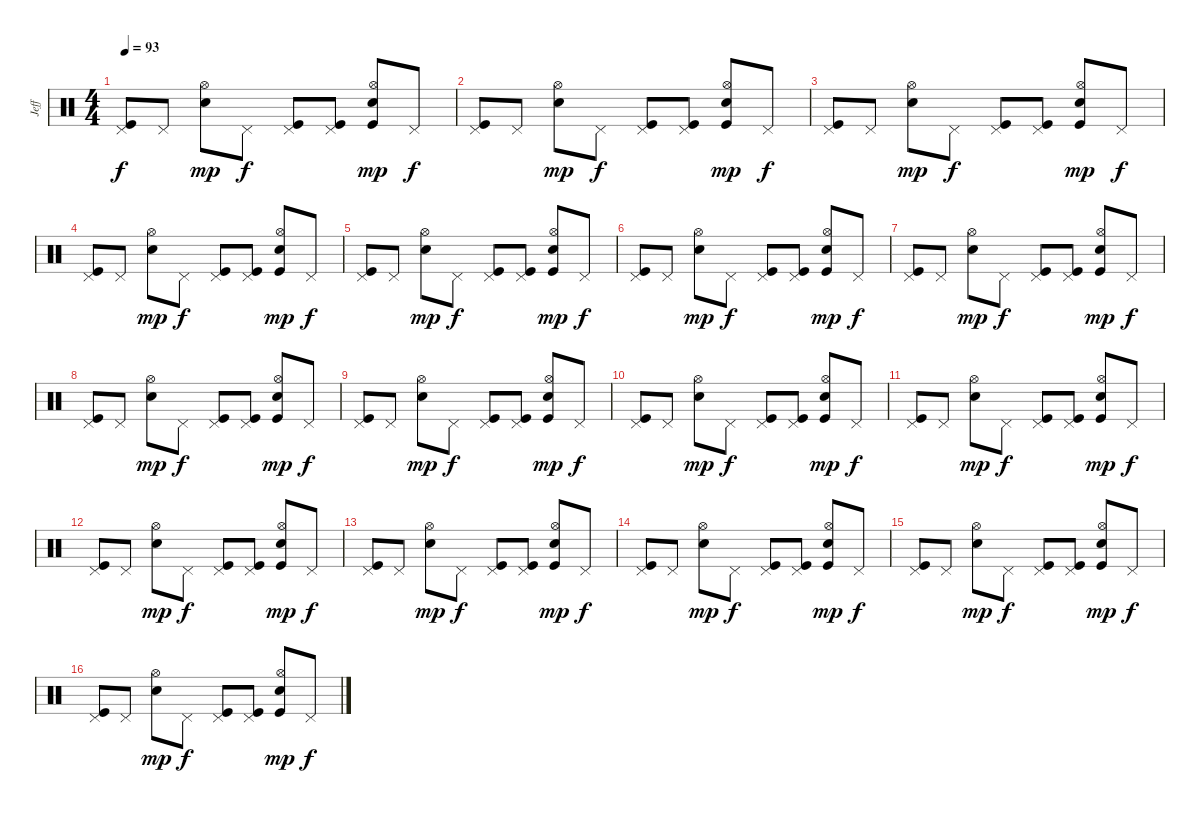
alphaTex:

\track ("Jeff" "Jeff") {instrument percussion}
\staff {score}
\articulation defaults
\ts (4 4)
\tempo 93
\clef neutral
\ks c
("Pedal Hi-Hat (hit)" "Kick (hit)").8{dy f} "Pedal Hi-Hat (hit)".8 ("Hi-Hat (open)" "Snare (hit) 2").8{dy mp} "Pedal Hi-Hat (hit)".8{dy f} ("Pedal Hi-Hat (hit)" "Kick (hit)").8 ("Pedal Hi-Hat (hit)" "Kick (hit)").8 ("Hi-Hat (open)" "Snare (hit) 2" "Kick (hit)").8{dy mp} "Pedal Hi-Hat (hit)".8{dy f} |
("Pedal Hi-Hat (hit)" "Kick (hit)").8 "Pedal Hi-Hat (hit)".8 ("Hi-Hat (open)" "Snare (hit) 2").8{dy mp} "Pedal Hi-Hat (hit)".8{dy f} ("Pedal Hi-Hat (hit)" "Kick (hit)").8 ("Pedal Hi-Hat (hit)" "Kick (hit)").8 ("Hi-Hat (open)" "Snare (hit) 2" "Kick (hit)").8{dy mp} "Pedal Hi-Hat (hit)".8{dy f} |
("Pedal Hi-Hat (hit)" "Kick (hit)").8 "Pedal Hi-Hat (hit)".8 ("Hi-Hat (open)" "Snare (hit) 2").8{dy mp} "Pedal Hi-Hat (hit)".8{dy f} ("Pedal Hi-Hat (hit)" "Kick (hit)").8 ("Pedal Hi-Hat (hit)" "Kick (hit)").8 ("Hi-Hat (open)" "Snare (hit) 2" "Kick (hit)").8{dy mp} "Pedal Hi-Hat (hit)".8{dy f} |
("Pedal Hi-Hat (hit)" "Kick (hit)").8 "Pedal Hi-Hat (hit)".8 ("Hi-Hat (open)" "Snare (hit) 2").8{dy mp} "Pedal Hi-Hat (hit)".8{dy f} ("Pedal Hi-Hat (hit)" "Kick (hit)").8 ("Pedal Hi-Hat (hit)" "Kick (hit)").8 ("Hi-Hat (open)" "Snare (hit) 2" "Kick (hit)").8{dy mp} "Pedal Hi-Hat (hit)".8{dy f} |
("Pedal Hi-Hat (hit)" "Kick (hit)").8 "Pedal Hi-Hat (hit)".8 ("Hi-Hat (open)" "Snare (hit) 2").8{dy mp} "Pedal Hi-Hat (hit)".8{dy f} ("Pedal Hi-Hat (hit)" "Kick (hit)").8 ("Pedal Hi-Hat (hit)" "Kick (hit)").8 ("Hi-Hat (open)" "Snare (hit) 2" "Kick (hit)").8{dy mp} "Pedal Hi-Hat (hit)".8{dy f} |
("Pedal Hi-Hat (hit)" "Kick (hit)").8 "Pedal Hi-Hat (hit)".8 ("Hi-Hat (open)" "Snare (hit) 2").8{dy mp} "Pedal Hi-Hat (hit)".8{dy f} ("Pedal Hi-Hat (hit)" "Kick (hit)").8 ("Pedal Hi-Hat (hit)" "Kick (hit)").8 ("Hi-Hat (open)" "Snare (hit) 2" "Kick (hit)").8{dy mp} "Pedal Hi-Hat (hit)".8{dy f} |
("Pedal Hi-Hat (hit)" "Kick (hit)").8 "Pedal Hi-Hat (hit)".8 ("Hi-Hat (open)" "Snare (hit) 2").8{dy mp} "Pedal Hi-Hat (hit)".8{dy f} ("Pedal Hi-Hat (hit)" "Kick (hit)").8 ("Pedal Hi-Hat (hit)" "Kick (hit)").8 ("Hi-Hat (open)" "Snare (hit) 2" "Kick (hit)").8{dy mp} "Pedal Hi-Hat (hit)".8{dy f} |
("Pedal Hi-Hat (hit)" "Kick (hit)").8 "Pedal Hi-Hat (hit)".8 ("Hi-Hat (open)" "Snare (hit) 2").8{dy mp} "Pedal Hi-Hat (hit)".8{dy f} ("Pedal Hi-Hat (hit)" "Kick (hit)").8 ("Pedal Hi-Hat (hit)" "Kick (hit)").8 ("Hi-Hat (open)" "Snare (hit) 2" "Kick (hit)").8{dy mp} "Pedal Hi-Hat (hit)".8{dy f} |
("Pedal Hi-Hat (hit)" "Kick (hit)").8 "Pedal Hi-Hat (hit)".8 ("Hi-Hat (open)" "Snare (hit) 2").8{dy mp} "Pedal Hi-Hat (hit)".8{dy f} ("Pedal Hi-Hat (hit)" "Kick (hit)").8 ("Pedal Hi-Hat (hit)" "Kick (hit)").8 ("Hi-Hat (open)" "Snare (hit) 2" "Kick (hit)").8{dy mp} "Pedal Hi-Hat (hit)".8{dy f} |
("Pedal Hi-Hat (hit)" "Kick (hit)").8 "Pedal Hi-Hat (hit)".8 ("Hi-Hat (open)" "Snare (hit) 2").8{dy mp} "Pedal Hi-Hat (hit)".8{dy f} ("Pedal Hi-Hat (hit)" "Kick (hit)").8 ("Pedal Hi-Hat (hit)" "Kick (hit)").8 ("Hi-Hat (open)" "Snare (hit) 2" "Kick (hit)").8{dy mp} "Pedal Hi-Hat (hit)".8{dy f} |
("Pedal Hi-Hat (hit)" "Kick (hit)").8 "Pedal Hi-Hat (hit)".8 ("Hi-Hat (open)" "Snare (hit) 2").8{dy mp} "Pedal Hi-Hat (hit)".8{dy f} ("Pedal Hi-Hat (hit)" "Kick (hit)").8 ("Pedal Hi-Hat (hit)" "Kick (hit)").8 ("Hi-Hat (open)" "Snare (hit) 2" "Kick (hit)").8{dy mp} "Pedal Hi-Hat (hit)".8{dy f} |
("Pedal Hi-Hat (hit)" "Kick (hit)").8 "Pedal Hi-Hat (hit)".8 ("Hi-Hat (open)" "Snare (hit) 2").8{dy mp} "Pedal Hi-Hat (hit)".8{dy f} ("Pedal Hi-Hat (hit)" "Kick (hit)").8 ("Pedal Hi-Hat (hit)" "Kick (hit)").8 ("Hi-Hat (open)" "Snare (hit) 2" "Kick (hit)").8{dy mp} "Pedal Hi-Hat (hit)".8{dy f} |
("Pedal Hi-Hat (hit)" "Kick (hit)").8 "Pedal Hi-Hat (hit)".8 ("Hi-Hat (open)" "Snare (hit) 2").8{dy mp} "Pedal Hi-Hat (hit)".8{dy f} ("Pedal Hi-Hat (hit)" "Kick (hit)").8 ("Pedal Hi-Hat (hit)" "Kick (hit)").8 ("Hi-Hat (open)" "Snare (hit) 2" "Kick (hit)").8{dy mp} "Pedal Hi-Hat (hit)".8{dy f} |
("Pedal Hi-Hat (hit)" "Kick (hit)").8 "Pedal Hi-Hat (hit)".8 ("Hi-Hat (open)" "Snare (hit) 2").8{dy mp} "Pedal Hi-Hat (hit)".8{dy f} ("Pedal Hi-Hat (hit)" "Kick (hit)").8 ("Pedal Hi-Hat (hit)" "Kick (hit)").8 ("Hi-Hat (open)" "Snare (hit) 2" "Kick (hit)").8{dy mp} "Pedal Hi-Hat (hit)".8{dy f} |
("Pedal Hi-Hat (hit)" "Kick (hit)").8 "Pedal Hi-Hat (hit)".8 ("Hi-Hat (open)" "Snare (hit) 2").8{dy mp} "Pedal Hi-Hat (hit)".8{dy f} ("Pedal Hi-Hat (hit)" "Kick (hit)").8 ("Pedal Hi-Hat (hit)" "Kick (hit)").8 ("Hi-Hat (open)" "Snare (hit) 2" "Kick (hit)").8{dy mp} "Pedal Hi-Hat (hit)".8{dy f} |
("Pedal Hi-Hat (hit)" "Kick (hit)").8 "Pedal Hi-Hat (hit)".8 ("Hi-Hat (open)" "Snare (hit) 2").8{dy mp} "Pedal Hi-Hat (hit)".8{dy f} ("Pedal Hi-Hat (hit)" "Kick (hit)").8 ("Pedal Hi-Hat (hit)" "Kick (hit)").8 ("Hi-Hat (open)" "Snare (hit) 2" "Kick (hit)").8{dy mp} "Pedal Hi-Hat (hit)".8{dy f}
